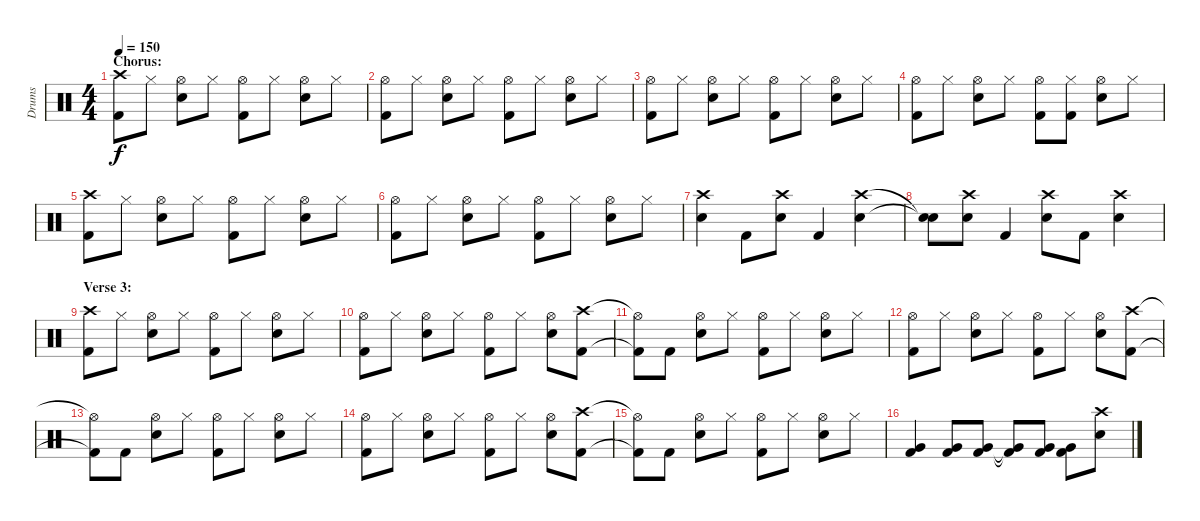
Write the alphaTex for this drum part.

\track ("Drums" "Drums") {instrument percussion}
\staff {score}
\articulation defaults
\ts (4 4)
\section ("" "Chorus:")
\tempo 150
\clef neutral
\ks c
("Crash high (hit)" "Kick (hit) 2").8{dy f} "Hi-Hat (closed)".8 ("Hi-Hat (open)" "Snare (hit) 2").8 "Hi-Hat (closed)".8 ("Hi-Hat (open)" "Kick (hit) 2").8 "Hi-Hat (closed)".8 ("Hi-Hat (open)" "Snare (hit) 2").8 "Hi-Hat (closed)".8 |
("Hi-Hat (open)" "Kick (hit) 2").8 "Hi-Hat (closed)".8 ("Hi-Hat (open)" "Snare (hit) 2").8 "Hi-Hat (closed)".8 ("Hi-Hat (open)" "Kick (hit) 2").8 "Hi-Hat (closed)".8 ("Hi-Hat (open)" "Snare (hit) 2").8 "Hi-Hat (closed)".8 |
("Hi-Hat (open)" "Kick (hit) 2").8 "Hi-Hat (closed)".8 ("Hi-Hat (open)" "Snare (hit) 2").8 "Hi-Hat (closed)".8 ("Hi-Hat (open)" "Kick (hit) 2").8 "Hi-Hat (closed)".8 ("Hi-Hat (open)" "Snare (hit) 2").8 "Hi-Hat (closed)".8 |
("Hi-Hat (open)" "Kick (hit) 2").8 "Hi-Hat (closed)".8 ("Hi-Hat (open)" "Snare (hit) 2").8 "Hi-Hat (closed)".8 ("Hi-Hat (open)" "Kick (hit) 2").8 ("Hi-Hat (closed)" "Kick (hit) 2").8 ("Hi-Hat (open)" "Snare (hit) 2").8 "Hi-Hat (closed)".8 |
("Crash high (hit)" "Kick (hit) 2").8 "Hi-Hat (closed)".8 ("Hi-Hat (open)" "Snare (hit) 2").8 "Hi-Hat (closed)".8 ("Hi-Hat (open)" "Kick (hit) 2").8 "Hi-Hat (closed)".8 ("Hi-Hat (open)" "Snare (hit) 2").8 "Hi-Hat (closed)".8 |
("Hi-Hat (open)" "Kick (hit) 2").8 "Hi-Hat (closed)".8 ("Hi-Hat (open)" "Snare (hit) 2").8 "Hi-Hat (closed)".8 ("Hi-Hat (open)" "Kick (hit) 2").8 "Hi-Hat (closed)".8 ("Hi-Hat (open)" "Snare (hit) 2").8 "Hi-Hat (closed)".8 |
("Crash high (hit)" "Snare (hit) 2").4 "Kick (hit) 2".8 ("Crash high (hit)" "Snare (hit) 2").8 "Kick (hit) 2".4 ("Crash high (hit)" "Snare (hit) 2").4 |
("Snare (hit)"{t} "Snare (hit)"{t}).8 ("Crash high (hit)" "Snare (hit) 2").8 "Kick (hit) 2".4 ("Crash high (hit)" "Snare (hit) 2").8 "Kick (hit) 2".8 ("Crash high (hit)" "Snare (hit) 2").4 |
\section ("" "Verse 3:")
("Crash high (hit)" "Kick (hit) 2").8 "Hi-Hat (closed)".8 ("Hi-Hat (open)" "Snare (hit) 2").8 "Hi-Hat (closed)".8 ("Hi-Hat (open)" "Kick (hit) 2").8 "Hi-Hat (closed)".8 ("Hi-Hat (open)" "Snare (hit) 2").8 "Hi-Hat (closed)".8 |
("Hi-Hat (open)" "Kick (hit) 2").8 "Hi-Hat (closed)".8 ("Hi-Hat (open)" "Snare (hit) 2").8 "Hi-Hat (closed)".8 ("Hi-Hat (open)" "Kick (hit) 2").8 "Hi-Hat (closed)".8 ("Hi-Hat (open)" "Snare (hit) 2").8 ("Crash high (hit)" "Kick (hit) 2").8 |
("Hi-Hat (open)"{t} "Kick (hit) 2"{t}).8 "Kick (hit) 2".8 ("Hi-Hat (open)" "Snare (hit) 2").8 "Hi-Hat (closed)".8 ("Hi-Hat (open)" "Kick (hit) 2").8 "Hi-Hat (closed)".8 ("Hi-Hat (open)" "Snare (hit) 2").8 "Hi-Hat (closed)".8 |
("Hi-Hat (open)" "Kick (hit) 2").8 "Hi-Hat (closed)".8 ("Hi-Hat (open)" "Snare (hit) 2").8 "Hi-Hat (closed)".8 ("Hi-Hat (open)" "Kick (hit) 2").8 "Hi-Hat (closed)".8 ("Hi-Hat (open)" "Snare (hit) 2").8 ("Crash high (hit)" "Kick (hit) 2").8 |
("Hi-Hat (open)"{t} "Kick (hit) 2"{t}).8 "Kick (hit) 2".8 ("Hi-Hat (open)" "Snare (hit) 2").8 "Hi-Hat (closed)".8 ("Hi-Hat (open)" "Kick (hit) 2").8 "Hi-Hat (closed)".8 ("Hi-Hat (open)" "Snare (hit) 2").8 "Hi-Hat (closed)".8 |
("Hi-Hat (open)" "Kick (hit) 2").8 "Hi-Hat (closed)".8 ("Hi-Hat (open)" "Snare (hit) 2").8 "Hi-Hat (closed)".8 ("Hi-Hat (open)" "Kick (hit) 2").8 "Hi-Hat (closed)".8 ("Hi-Hat (open)" "Snare (hit) 2").8 ("Crash high (hit)" "Kick (hit) 2").8 |
("Hi-Hat (open)"{t} "Kick (hit) 2"{t}).8 "Kick (hit) 2".8 ("Hi-Hat (open)" "Snare (hit) 2").8 "Hi-Hat (closed)".8 ("Hi-Hat (open)" "Kick (hit) 2").8 "Hi-Hat (closed)".8 ("Hi-Hat (open)" "Snare (hit) 2").8 "Hi-Hat (closed)".8 |
("Very Low Tom (hit)" "Kick (hit) 2").4 ("Very Low Tom (hit)" "Kick (hit) 2").8 ("Very Low Tom (hit)" "Kick (hit) 2").8 ("Very Low Tom (hit)"{t} "Kick (hit) 2"{t}).8 ("Very Low Tom (hit)" "Kick (hit) 2").8 ("Very Low Tom (hit)" "Kick (hit) 2").8 ("Crash high (hit)" "Snare (hit) 2").8
